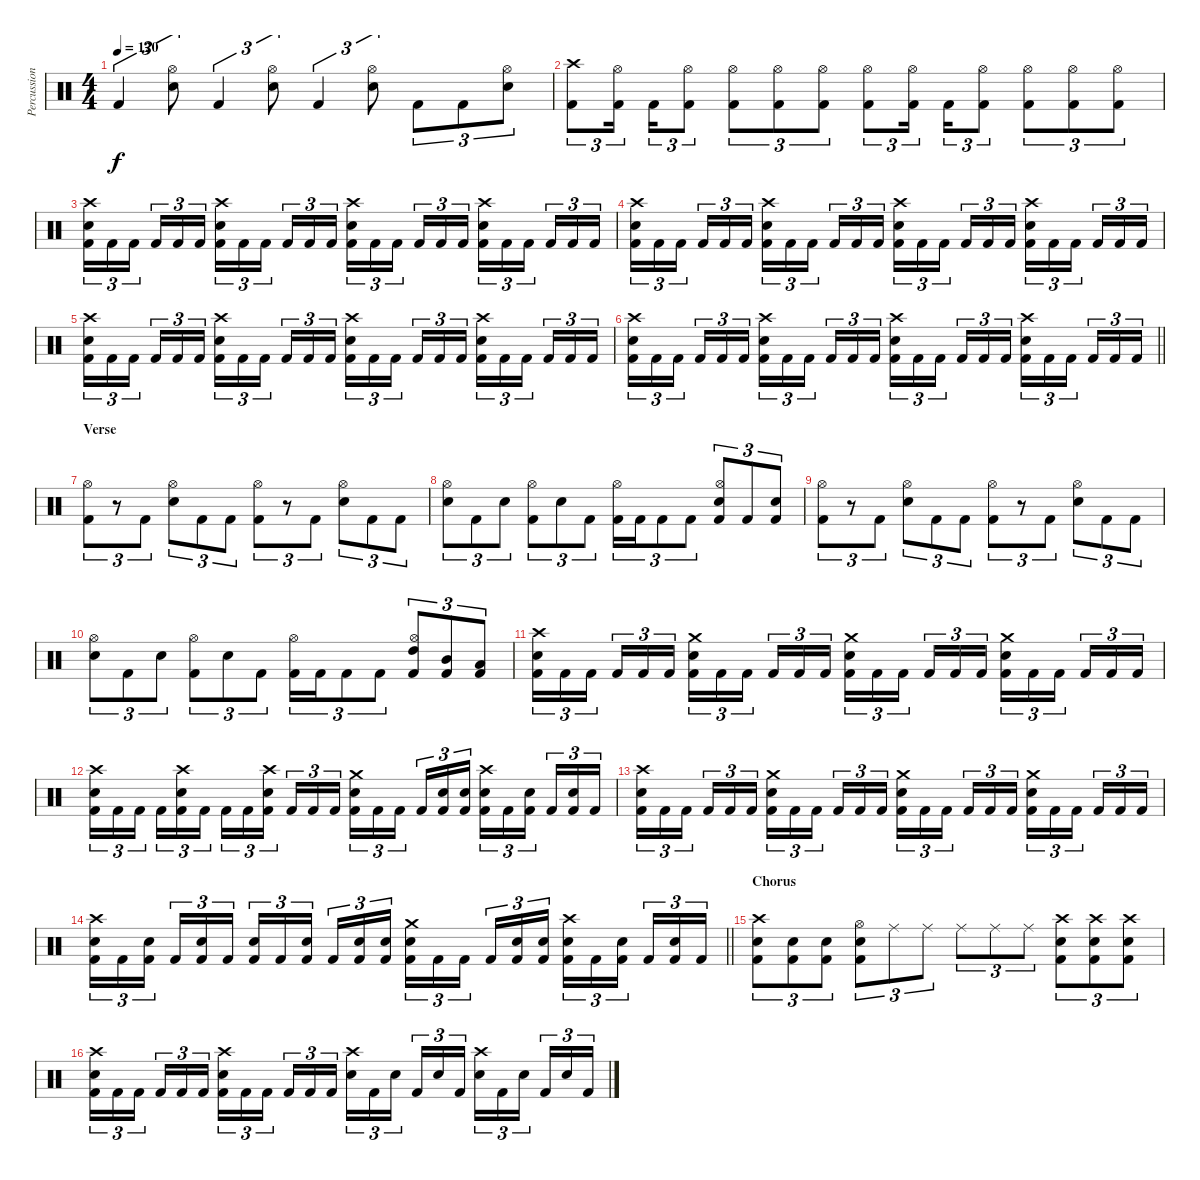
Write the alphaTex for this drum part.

\track ("Percussion" "Percussion") {instrument percussion}
\staff {score}
\articulation defaults
\ts (4 4)
\tempo 120
\clef neutral
\ks c "Kick (hit) 2".4{tu (3 2) dy f}
("Hi-Hat (open)" "Snare (hit) 2").8{tu (3 2)} "Kick (hit) 2".4{tu (3 2)} ("Hi-Hat (open)" "Snare (hit) 2").8{tu (3 2)} "Kick (hit) 2".4{tu (3 2)} ("Hi-Hat (open)" "Snare (hit) 2").8{tu (3 2)} "Kick (hit) 2".8{tu (3 2)} "Kick (hit) 2".8{tu (3 2)} ("Hi-Hat (open)" "Snare (hit) 2").8{tu (3 2)} |
("Crash high (hit)" "Kick (hit) 2").8{tu (3 2)} ("Hi-Hat (open)" "Kick (hit) 2").16{tu (3 2) beam splitsecondary} "Kick (hit) 2".16{tu (3 2)} ("Hi-Hat (open)" "Kick (hit) 2").8{tu (3 2)} ("Hi-Hat (open)" "Kick (hit) 2").8{tu (3 2)} ("Hi-Hat (open)" "Kick (hit) 2").8{tu (3 2)} ("Hi-Hat (open)" "Kick (hit) 2").8{tu (3 2)} ("Hi-Hat (open)" "Kick (hit) 2").8{tu (3 2)} ("Hi-Hat (open)" "Kick (hit) 2").16{tu (3 2) beam splitsecondary} "Kick (hit) 2".16{tu (3 2)} ("Hi-Hat (open)" "Kick (hit) 2").8{tu (3 2)} ("Hi-Hat (open)" "Kick (hit) 2").8{tu (3 2)} ("Hi-Hat (open)" "Kick (hit) 2").8{tu (3 2)} ("Hi-Hat (open)" "Kick (hit) 2").8{tu (3 2)} |
("Crash high (hit)" "Snare (hit) 2" "Kick (hit) 2").16{tu (3 2)} "Kick (hit) 2".16{tu (3 2)} "Kick (hit) 2".16{tu (3 2) beam splitsecondary} "Kick (hit) 2".16{tu (3 2)} "Kick (hit) 2".16{tu (3 2)} "Kick (hit) 2".16{tu (3 2)} ("Crash high (hit)" "Snare (hit) 2" "Kick (hit) 2").16{tu (3 2)} "Kick (hit) 2".16{tu (3 2)} "Kick (hit) 2".16{tu (3 2) beam splitsecondary} "Kick (hit) 2".16{tu (3 2)} "Kick (hit) 2".16{tu (3 2)} "Kick (hit) 2".16{tu (3 2)} ("Crash high (hit)" "Snare (hit) 2" "Kick (hit) 2").16{tu (3 2)} "Kick (hit) 2".16{tu (3 2)} "Kick (hit) 2".16{tu (3 2) beam splitsecondary} "Kick (hit) 2".16{tu (3 2)} "Kick (hit) 2".16{tu (3 2)} "Kick (hit) 2".16{tu (3 2)} ("Crash high (hit)" "Snare (hit) 2" "Kick (hit) 2").16{tu (3 2)} "Kick (hit) 2".16{tu (3 2)} "Kick (hit) 2".16{tu (3 2) beam splitsecondary} "Kick (hit) 2".16{tu (3 2)} "Kick (hit) 2".16{tu (3 2)} "Kick (hit) 2".16{tu (3 2)} |
("Crash high (hit)" "Snare (hit) 2" "Kick (hit) 2").16{tu (3 2)} "Kick (hit) 2".16{tu (3 2)} "Kick (hit) 2".16{tu (3 2) beam splitsecondary} "Kick (hit) 2".16{tu (3 2)} "Kick (hit) 2".16{tu (3 2)} "Kick (hit) 2".16{tu (3 2)} ("Crash high (hit)" "Snare (hit) 2" "Kick (hit) 2").16{tu (3 2)} "Kick (hit) 2".16{tu (3 2)} "Kick (hit) 2".16{tu (3 2) beam splitsecondary} "Kick (hit) 2".16{tu (3 2)} "Kick (hit) 2".16{tu (3 2)} "Kick (hit) 2".16{tu (3 2)} ("Crash high (hit)" "Snare (hit) 2" "Kick (hit) 2").16{tu (3 2)} "Kick (hit) 2".16{tu (3 2)} "Kick (hit) 2".16{tu (3 2) beam splitsecondary} "Kick (hit) 2".16{tu (3 2)} "Kick (hit) 2".16{tu (3 2)} "Kick (hit) 2".16{tu (3 2)} ("Crash high (hit)" "Snare (hit) 2" "Kick (hit) 2").16{tu (3 2)} "Kick (hit) 2".16{tu (3 2)} "Kick (hit) 2".16{tu (3 2) beam splitsecondary} "Kick (hit) 2".16{tu (3 2)} "Kick (hit) 2".16{tu (3 2)} "Kick (hit) 2".16{tu (3 2)} |
("Crash high (hit)" "Snare (hit) 2" "Kick (hit) 2").16{tu (3 2)} "Kick (hit) 2".16{tu (3 2)} "Kick (hit) 2".16{tu (3 2) beam splitsecondary} "Kick (hit) 2".16{tu (3 2)} "Kick (hit) 2".16{tu (3 2)} "Kick (hit) 2".16{tu (3 2)} ("Crash high (hit)" "Snare (hit) 2" "Kick (hit) 2").16{tu (3 2)} "Kick (hit) 2".16{tu (3 2)} "Kick (hit) 2".16{tu (3 2) beam splitsecondary} "Kick (hit) 2".16{tu (3 2)} "Kick (hit) 2".16{tu (3 2)} "Kick (hit) 2".16{tu (3 2)} ("Crash high (hit)" "Snare (hit) 2" "Kick (hit) 2").16{tu (3 2)} "Kick (hit) 2".16{tu (3 2)} "Kick (hit) 2".16{tu (3 2) beam splitsecondary} "Kick (hit) 2".16{tu (3 2)} "Kick (hit) 2".16{tu (3 2)} "Kick (hit) 2".16{tu (3 2)} ("Crash high (hit)" "Snare (hit) 2" "Kick (hit) 2").16{tu (3 2)} "Kick (hit) 2".16{tu (3 2)} "Kick (hit) 2".16{tu (3 2) beam splitsecondary} "Kick (hit) 2".16{tu (3 2)} "Kick (hit) 2".16{tu (3 2)} "Kick (hit) 2".16{tu (3 2)} |
\barLineRight lightlight
("Crash high (hit)" "Snare (hit) 2" "Kick (hit) 2").16{tu (3 2)} "Kick (hit) 2".16{tu (3 2)} "Kick (hit) 2".16{tu (3 2) beam splitsecondary} "Kick (hit) 2".16{tu (3 2)} "Kick (hit) 2".16{tu (3 2)} "Kick (hit) 2".16{tu (3 2)} ("Crash high (hit)" "Snare (hit) 2" "Kick (hit) 2").16{tu (3 2)} "Kick (hit) 2".16{tu (3 2)} "Kick (hit) 2".16{tu (3 2) beam splitsecondary} "Kick (hit) 2".16{tu (3 2)} "Kick (hit) 2".16{tu (3 2)} "Kick (hit) 2".16{tu (3 2)} ("Crash high (hit)" "Snare (hit) 2" "Kick (hit) 2").16{tu (3 2)} "Kick (hit) 2".16{tu (3 2)} "Kick (hit) 2".16{tu (3 2) beam splitsecondary} "Kick (hit) 2".16{tu (3 2)} "Kick (hit) 2".16{tu (3 2)} "Kick (hit) 2".16{tu (3 2)} ("Crash high (hit)" "Snare (hit) 2" "Kick (hit) 2").16{tu (3 2)} "Kick (hit) 2".16{tu (3 2)} "Kick (hit) 2".16{tu (3 2) beam splitsecondary} "Kick (hit) 2".16{tu (3 2)} "Kick (hit) 2".16{tu (3 2)} "Kick (hit) 2".16{tu (3 2)} |
\section ("" "Verse")
("Hi-Hat (open)" "Kick (hit) 2").8{tu (3 2)} r.8{tu (3 2)} "Kick (hit) 2".8{tu (3 2)} ("Hi-Hat (open)" "Snare (hit) 2").8{tu (3 2)} "Kick (hit) 2".8{tu (3 2)} "Kick (hit) 2".8{tu (3 2)} ("Hi-Hat (open)" "Kick (hit) 2").8{tu (3 2)} r.8{tu (3 2)} "Kick (hit) 2".8{tu (3 2)} ("Hi-Hat (open)" "Snare (hit) 2").8{tu (3 2)} "Kick (hit) 2".8{tu (3 2)} "Kick (hit) 2".8{tu (3 2)} |
("Hi-Hat (open)" "Snare (hit) 2").8{tu (3 2)} "Kick (hit) 2".8{tu (3 2)} "Snare (hit) 2".8{tu (3 2)} ("Hi-Hat (open)" "Kick (hit) 2").8{tu (3 2)} "Snare (hit) 2".8{tu (3 2)} "Kick (hit) 2".8{tu (3 2)} ("Hi-Hat (open)" "Kick (hit) 2").16{tu (3 2)} "Kick (hit) 2".16{tu (3 2)} "Kick (hit) 2".8{tu (3 2)} "Kick (hit) 2".8{tu (3 2)} ("Hi-Hat (open)" "Snare (hit) 2" "Kick (hit) 2").8{tu (3 2)} "Kick (hit) 2".8{tu (3 2)} ("Snare (hit) 2" "Kick (hit) 2").8{tu (3 2)} |
("Hi-Hat (open)" "Kick (hit) 2").8{tu (3 2)} r.8{tu (3 2)} "Kick (hit) 2".8{tu (3 2)} ("Hi-Hat (open)" "Snare (hit) 2").8{tu (3 2)} "Kick (hit) 2".8{tu (3 2)} "Kick (hit) 2".8{tu (3 2)} ("Hi-Hat (open)" "Kick (hit) 2").8{tu (3 2)} r.8{tu (3 2)} "Kick (hit) 2".8{tu (3 2)} ("Hi-Hat (open)" "Snare (hit) 2").8{tu (3 2)} "Kick (hit) 2".8{tu (3 2)} "Kick (hit) 2".8{tu (3 2)} |
("Hi-Hat (open)" "Snare (hit) 2").8{tu (3 2)} "Kick (hit) 2".8{tu (3 2)} "Snare (hit) 2".8{tu (3 2)} ("Hi-Hat (open)" "Kick (hit) 2").8{tu (3 2)} "Snare (hit) 2".8{tu (3 2)} "Kick (hit) 2".8{tu (3 2)} ("Hi-Hat (open)" "Kick (hit) 2").16{tu (3 2)} "Kick (hit) 2".16{tu (3 2)} "Kick (hit) 2".8{tu (3 2)} "Kick (hit) 2".8{tu (3 2)} ("Hi-Hat (open)" "High Tom (hit)" "Kick (hit) 2").8{tu (3 2)} ("Mid Tom (hit)" "Kick (hit) 2").8{tu (3 2)} ("Low Tom (hit)" "Kick (hit) 2").8{tu (3 2)} |
("Crash high (hit)" "Snare (hit) 2" "Kick (hit) 2").16{tu (3 2)} "Kick (hit) 2".16{tu (3 2)} "Kick (hit) 2".16{tu (3 2) beam splitsecondary} "Kick (hit) 2".16{tu (3 2)} "Kick (hit) 2".16{tu (3 2)} "Kick (hit) 2".16{tu (3 2)} ("Crash medium (hit)" "Snare (hit) 2" "Kick (hit) 2").16{tu (3 2)} "Kick (hit) 2".16{tu (3 2)} "Kick (hit) 2".16{tu (3 2) beam splitsecondary} "Kick (hit) 2".16{tu (3 2)} "Kick (hit) 2".16{tu (3 2)} "Kick (hit) 2".16{tu (3 2)} ("Crash medium (hit)" "Snare (hit) 2" "Kick (hit) 2").16{tu (3 2)} "Kick (hit) 2".16{tu (3 2)} "Kick (hit) 2".16{tu (3 2) beam splitsecondary} "Kick (hit) 2".16{tu (3 2)} "Kick (hit) 2".16{tu (3 2)} "Kick (hit) 2".16{tu (3 2)} ("Crash medium (hit)" "Snare (hit) 2" "Kick (hit) 2").16{tu (3 2)} "Kick (hit) 2".16{tu (3 2)} "Kick (hit) 2".16{tu (3 2) beam splitsecondary} "Kick (hit) 2".16{tu (3 2)} "Kick (hit) 2".16{tu (3 2)} "Kick (hit) 2".16{tu (3 2)} |
("Crash high (hit)" "Snare (hit) 2" "Kick (hit) 2").16{tu (3 2)} "Kick (hit) 2".16{tu (3 2)} "Kick (hit) 2".16{tu (3 2) beam splitsecondary} "Kick (hit) 2".16{tu (3 2)} ("Crash high (hit)" "Snare (hit) 2" "Kick (hit) 2").16{tu (3 2)} "Kick (hit) 2".16{tu (3 2)} "Kick (hit) 2".16{tu (3 2)} "Kick (hit) 2".16{tu (3 2)} ("Crash high (hit)" "Snare (hit) 2" "Kick (hit) 2").16{tu (3 2) beam splitsecondary} "Kick (hit) 2".16{tu (3 2)} "Kick (hit) 2".16{tu (3 2)} "Kick (hit) 2".16{tu (3 2)} ("Crash medium (hit)" "Snare (hit) 2" "Kick (hit) 2").16{tu (3 2)} "Kick (hit) 2".16{tu (3 2)} "Kick (hit) 2".16{tu (3 2) beam splitsecondary} "Kick (hit) 2".16{tu (3 2)} ("Snare (hit) 2" "Kick (hit) 2").16{tu (3 2)} ("Snare (hit) 2" "Kick (hit) 2").16{tu (3 2)} ("Crash high (hit)" "Snare (hit) 2" "Kick (hit) 2").16{tu (3 2)} "Kick (hit) 2".16{tu (3 2)} ("Snare (hit) 2" "Kick (hit) 2").16{tu (3 2) beam splitsecondary} "Kick (hit) 2".16{tu (3 2)} ("Snare (hit) 2" "Kick (hit) 2").16{tu (3 2)} "Kick (hit) 2".16{tu (3 2)} |
("Crash high (hit)" "Snare (hit) 2" "Kick (hit) 2").16{tu (3 2)} "Kick (hit) 2".16{tu (3 2)} "Kick (hit) 2".16{tu (3 2) beam splitsecondary} "Kick (hit) 2".16{tu (3 2)} "Kick (hit) 2".16{tu (3 2)} "Kick (hit) 2".16{tu (3 2)} ("Crash medium (hit)" "Snare (hit) 2" "Kick (hit) 2").16{tu (3 2)} "Kick (hit) 2".16{tu (3 2)} "Kick (hit) 2".16{tu (3 2) beam splitsecondary} "Kick (hit) 2".16{tu (3 2)} "Kick (hit) 2".16{tu (3 2)} "Kick (hit) 2".16{tu (3 2)} ("Crash medium (hit)" "Snare (hit) 2" "Kick (hit) 2").16{tu (3 2)} "Kick (hit) 2".16{tu (3 2)} "Kick (hit) 2".16{tu (3 2) beam splitsecondary} "Kick (hit) 2".16{tu (3 2)} "Kick (hit) 2".16{tu (3 2)} "Kick (hit) 2".16{tu (3 2)} ("Crash medium (hit)" "Snare (hit) 2" "Kick (hit) 2").16{tu (3 2)} "Kick (hit) 2".16{tu (3 2)} "Kick (hit) 2".16{tu (3 2) beam splitsecondary} "Kick (hit) 2".16{tu (3 2)} "Kick (hit) 2".16{tu (3 2)} "Kick (hit) 2".16{tu (3 2)} |
\barLineRight lightlight
("Crash high (hit)" "Snare (hit) 2" "Kick (hit) 2").16{tu (3 2)} "Kick (hit) 2".16{tu (3 2)} ("Snare (hit) 2" "Kick (hit) 2").16{tu (3 2) beam splitsecondary} "Kick (hit) 2".16{tu (3 2)} ("Snare (hit) 2" "Kick (hit) 2").16{tu (3 2)} "Kick (hit) 2".16{tu (3 2)} ("Snare (hit) 2" "Kick (hit) 2").16{tu (3 2)} "Kick (hit) 2".16{tu (3 2)} ("Snare (hit) 2" "Kick (hit) 2").16{tu (3 2) beam splitsecondary} "Kick (hit) 2".16{tu (3 2)} ("Snare (hit) 2" "Kick (hit) 2").16{tu (3 2)} ("Snare (hit) 2" "Kick (hit) 2").16{tu (3 2)} ("Crash medium (hit)" "Snare (hit) 2" "Kick (hit) 2").16{tu (3 2)} "Kick (hit) 2".16{tu (3 2)} "Kick (hit) 2".16{tu (3 2) beam splitsecondary} "Kick (hit) 2".16{tu (3 2)} ("Snare (hit) 2" "Kick (hit) 2").16{tu (3 2)} ("Snare (hit) 2" "Kick (hit) 2").16{tu (3 2)} ("Crash high (hit)" "Snare (hit) 2" "Kick (hit) 2").16{tu (3 2)} "Kick (hit) 2".16{tu (3 2)} ("Snare (hit) 2" "Kick (hit) 2").16{tu (3 2) beam splitsecondary} "Kick (hit) 2".16{tu (3 2)} ("Snare (hit) 2" "Kick (hit) 2").16{tu (3 2)} "Kick (hit) 2".16{tu (3 2)} |
\section ("" "Chorus")
("Crash high (hit)" "Snare (hit) 2" "Kick (hit) 2").8{tu (3 2)} ("Snare (hit) 2" "Kick (hit) 2").8{tu (3 2)} ("Snare (hit) 2" "Kick (hit) 2").8{tu (3 2)} ("Hi-Hat (open)" "Snare (hit) 2" "Kick (hit) 2").8{tu (3 2)} "Ride (middle)".8{tu (3 2)} "Ride (middle)".8{tu (3 2)} "Ride (middle)".8{tu (3 2)} "Ride (middle)".8{tu (3 2)} "Ride (middle)".8{tu (3 2)} ("Crash high (hit)" "Snare (hit) 2" "Kick (hit) 2").8{tu (3 2)} ("Crash high (hit)" "Snare (hit) 2" "Kick (hit) 2").8{tu (3 2)} ("Crash high (hit)" "Snare (hit) 2" "Kick (hit) 2").8{tu (3 2)} |
("Crash high (hit)" "Snare (hit) 2" "Kick (hit) 2").16{tu (3 2)} "Kick (hit) 2".16{tu (3 2)} "Kick (hit) 2".16{tu (3 2) beam splitsecondary} "Kick (hit) 2".16{tu (3 2)} "Kick (hit) 2".16{tu (3 2)} "Kick (hit) 2".16{tu (3 2)} ("Crash high (hit)" "Snare (hit) 2" "Kick (hit) 2").16{tu (3 2)} "Kick (hit) 2".16{tu (3 2)} "Kick (hit) 2".16{tu (3 2) beam splitsecondary} "Kick (hit) 2".16{tu (3 2)} "Kick (hit) 2".16{tu (3 2)} "Kick (hit) 2".16{tu (3 2)} ("Crash high (hit)" "Snare (hit) 2").16{tu (3 2)} "Kick (hit) 2".16{tu (3 2)} "Snare (hit) 2".16{tu (3 2) beam splitsecondary} "Kick (hit) 2".16{tu (3 2)} "Snare (hit) 2".16{tu (3 2)} "Kick (hit) 2".16{tu (3 2)} ("Crash high (hit)" "Snare (hit) 2").16{tu (3 2)} "Kick (hit) 2".16{tu (3 2)} "Snare (hit) 2".16{tu (3 2) beam splitsecondary} "Kick (hit) 2".16{tu (3 2)} "Snare (hit) 2".16{tu (3 2)} "Kick (hit) 2".16{tu (3 2)}
